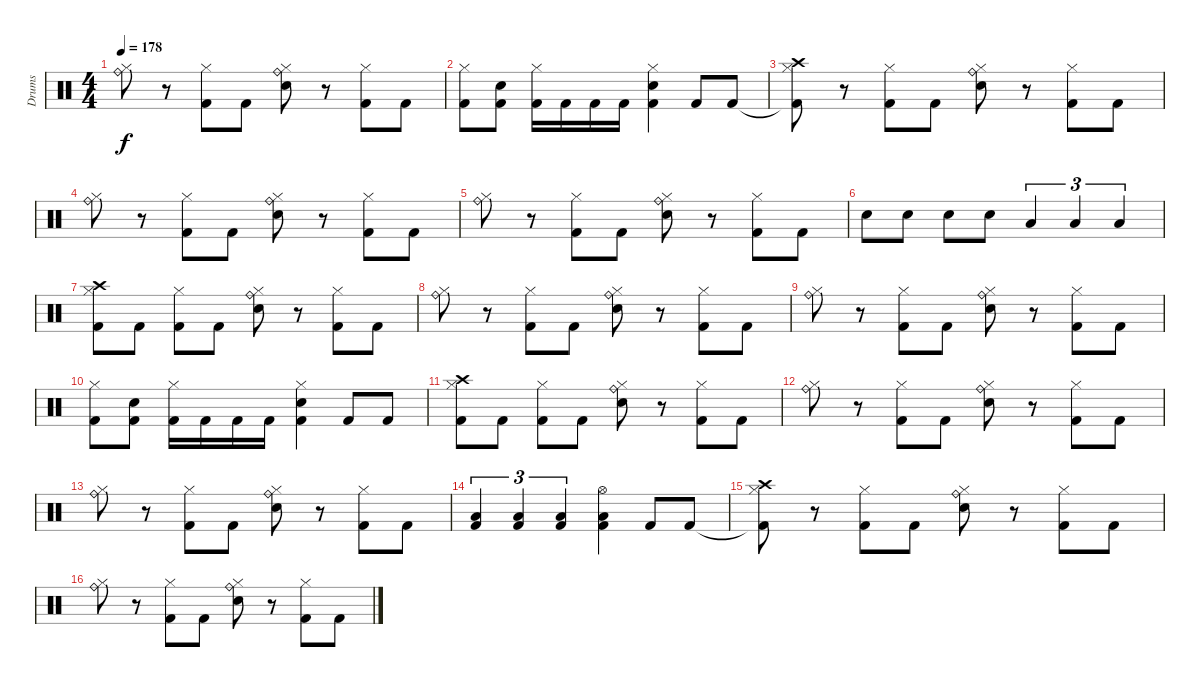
\track ("Drums" "Drums") {instrument percussion}
\staff {score}
\articulation defaults
\ts (4 4)
\tempo 178
\clef neutral
\ks c
("Hi-Hat (closed)" "Ride (bell)").8{dy f} r.8 ("Kick (hit) 2" "Hi-Hat (closed)").8 "Kick (hit) 2".8 ("Snare (hit) 2" "Hi-Hat (closed)" "Ride (bell)").8 r.8 ("Kick (hit) 2" "Hi-Hat (closed)").8 "Kick (hit) 2".8 |
("Kick (hit) 2" "Hi-Hat (closed)").8 ("Kick (hit) 2" "Snare (hit) 2").8 ("Kick (hit) 2" "Hi-Hat (closed)").16 "Kick (hit) 2".16 "Kick (hit) 2".16 "Kick (hit) 2".16 ("Kick (hit) 2" "Snare (hit) 2" "Hi-Hat (closed)").4 "Kick (hit) 2".8 "Kick (hit) 2".8 |
("Kick (hit) 2"{t} "Hi-Hat (closed)" "Crash high (hit)").8 r.8 ("Kick (hit) 2" "Hi-Hat (closed)").8 "Kick (hit) 2".8 ("Snare (hit) 2" "Hi-Hat (closed)" "Ride (bell)").8 r.8 ("Kick (hit) 2" "Hi-Hat (closed)").8 "Kick (hit) 2".8 |
("Hi-Hat (closed)" "Ride (bell)").8 r.8 ("Kick (hit) 2" "Hi-Hat (closed)").8 "Kick (hit) 2".8 ("Snare (hit) 2" "Hi-Hat (closed)" "Ride (bell)").8 r.8 ("Kick (hit) 2" "Hi-Hat (closed)").8 "Kick (hit) 2".8 |
("Hi-Hat (closed)" "Ride (bell)").8 r.8 ("Kick (hit) 2" "Hi-Hat (closed)").8 "Kick (hit) 2".8 ("Snare (hit) 2" "Hi-Hat (closed)" "Ride (bell)").8 r.8 ("Kick (hit) 2" "Hi-Hat (closed)").8 "Kick (hit) 2".8 |
"Snare (hit) 2".8 "Snare (hit) 2".8 "Snare (hit) 2".8 "Snare (hit) 2".8 "Low Floor Tom (hit)".4{tu (3 2)} "Low Floor Tom (hit)".4{tu (3 2)} "Low Floor Tom (hit)".4{tu (3 2)} |
("Kick (hit) 2" "Hi-Hat (closed)" "Crash high (hit)").8 "Kick (hit) 2".8 ("Kick (hit) 2" "Hi-Hat (closed)").8 "Kick (hit) 2".8 ("Snare (hit) 2" "Hi-Hat (closed)" "Ride (bell)").8 r.8 ("Kick (hit) 2" "Hi-Hat (closed)").8 "Kick (hit) 2".8 |
("Hi-Hat (closed)" "Ride (bell)").8 r.8 ("Kick (hit) 2" "Hi-Hat (closed)").8 "Kick (hit) 2".8 ("Snare (hit) 2" "Hi-Hat (closed)" "Ride (bell)").8 r.8 ("Kick (hit) 2" "Hi-Hat (closed)").8 "Kick (hit) 2".8 |
("Hi-Hat (closed)" "Ride (bell)").8 r.8 ("Kick (hit) 2" "Hi-Hat (closed)").8 "Kick (hit) 2".8 ("Snare (hit) 2" "Hi-Hat (closed)" "Ride (bell)").8 r.8 ("Kick (hit) 2" "Hi-Hat (closed)").8 "Kick (hit) 2".8 |
("Kick (hit) 2" "Hi-Hat (closed)").8 ("Kick (hit) 2" "Snare (hit) 2").8 ("Kick (hit) 2" "Hi-Hat (closed)").16 "Kick (hit) 2".16 "Kick (hit) 2".16 "Kick (hit) 2".16 ("Kick (hit) 2" "Snare (hit) 2" "Hi-Hat (closed)").4 "Kick (hit) 2".8 "Kick (hit) 2".8 |
("Kick (hit) 2" "Hi-Hat (closed)" "Crash high (hit)").8 "Kick (hit) 2".8 ("Kick (hit) 2" "Hi-Hat (closed)").8 "Kick (hit) 2".8 ("Snare (hit) 2" "Hi-Hat (closed)" "Ride (bell)").8 r.8 ("Kick (hit) 2" "Hi-Hat (closed)").8 "Kick (hit) 2".8 |
("Hi-Hat (closed)" "Ride (bell)").8 r.8 ("Kick (hit) 2" "Hi-Hat (closed)").8 "Kick (hit) 2".8 ("Snare (hit) 2" "Hi-Hat (closed)" "Ride (bell)").8 r.8 ("Kick (hit) 2" "Hi-Hat (closed)").8 "Kick (hit) 2".8 |
("Hi-Hat (closed)" "Ride (bell)").8 r.8 ("Kick (hit) 2" "Hi-Hat (closed)").8 "Kick (hit) 2".8 ("Snare (hit) 2" "Hi-Hat (closed)" "Ride (bell)").8 r.8 ("Kick (hit) 2" "Hi-Hat (closed)").8 "Kick (hit) 2".8 |
("Kick (hit) 2" "Low Floor Tom (hit)").4{tu (3 2)} ("Kick (hit) 2" "Low Floor Tom (hit)").4{tu (3 2)} ("Kick (hit) 2" "Low Floor Tom (hit)").4{tu (3 2)} ("Kick (hit) 2" "Low Floor Tom (hit)" "Hi-Hat (open)").4 "Kick (hit) 2".8 "Kick (hit) 2".8 |
("Kick (hit) 2"{t} "Hi-Hat (closed)" "Crash high (hit)").8 r.8 ("Kick (hit) 2" "Hi-Hat (closed)").8 "Kick (hit) 2".8 ("Snare (hit) 2" "Hi-Hat (closed)" "Ride (bell)").8 r.8 ("Kick (hit) 2" "Hi-Hat (closed)").8 "Kick (hit) 2".8 |
("Hi-Hat (closed)" "Ride (bell)").8 r.8 ("Kick (hit) 2" "Hi-Hat (closed)").8 "Kick (hit) 2".8 ("Snare (hit) 2" "Hi-Hat (closed)" "Ride (bell)").8 r.8 ("Kick (hit) 2" "Hi-Hat (closed)").8 "Kick (hit) 2".8
